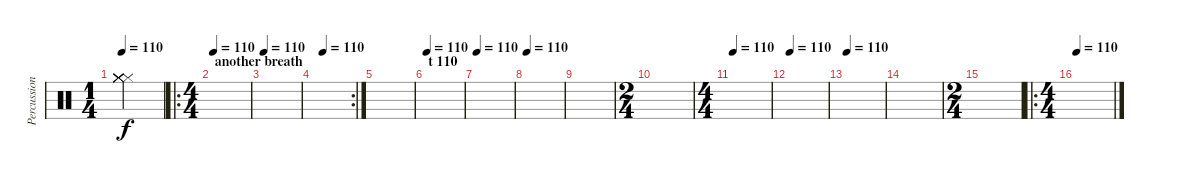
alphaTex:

\track ("Percussions" "Percussion") {instrument percussion}
\staff {score}
\articulation defaults
\ts (1 4)
\tempo 110
\clef neutral
\ks c
("Hi-Hat (closed)" "Hi-Hat (closed)" "Hi-Hat (closed)" "Hi-Hat (closed)" "Hi-Hat (closed)" "Hi-Hat (closed)").4{dy f} |
\ro
\ts (4 4)
\section ("" "another breath")
\tempo 110
|
\tempo 110
|
\rc 2
\tempo (110 0.25)
|
|
\section ("" "t 110")
\tempo 110
|
\tempo 110
|
\tempo 110
|
|
\ts (2 4)
|
\ts (4 4)
\section ("" "")
\tempo 110
|
\tempo 110
|
\tempo 110
|
|
\ts (2 4)
|
\ro
\ts (4 4)
\tempo 110
